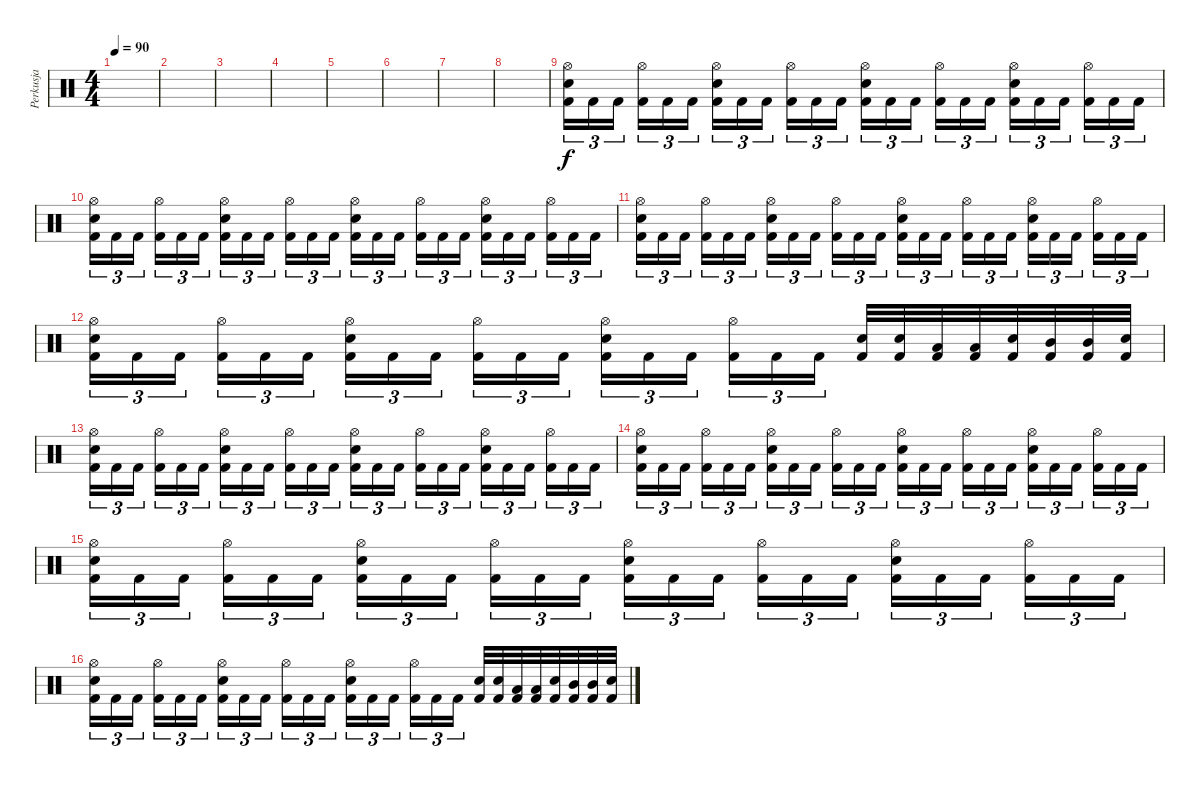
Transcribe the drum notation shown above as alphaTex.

\track ("Perkusja" "Perkusja") {instrument percussion}
\staff {score}
\articulation defaults
\ts (4 4)
\tempo 90
\clef neutral
\ks c
|
|
|
|
|
|
|
|
("Kick (hit) 2" "Snare (hit) 2" "Hi-Hat (open)").16{tu (3 2)} "Kick (hit) 2".16{tu (3 2)} "Kick (hit) 2".16{tu (3 2)} ("Kick (hit) 2" "Hi-Hat (open)").16{tu (3 2)} "Kick (hit) 2".16{tu (3 2)} "Kick (hit) 2".16{tu (3 2)} ("Kick (hit) 2" "Snare (hit) 2" "Hi-Hat (open)").16{tu (3 2)} "Kick (hit) 2".16{tu (3 2)} "Kick (hit) 2".16{tu (3 2)} ("Kick (hit) 2" "Hi-Hat (open)").16{tu (3 2)} "Kick (hit) 2".16{tu (3 2)} "Kick (hit) 2".16{tu (3 2)} ("Kick (hit) 2" "Snare (hit) 2" "Hi-Hat (open)").16{tu (3 2)} "Kick (hit) 2".16{tu (3 2)} "Kick (hit) 2".16{tu (3 2)} ("Kick (hit) 2" "Hi-Hat (open)").16{tu (3 2)} "Kick (hit) 2".16{tu (3 2)} "Kick (hit) 2".16{tu (3 2)} ("Kick (hit) 2" "Snare (hit) 2" "Hi-Hat (open)").16{tu (3 2)} "Kick (hit) 2".16{tu (3 2)} "Kick (hit) 2".16{tu (3 2)} ("Kick (hit) 2" "Hi-Hat (open)").16{tu (3 2)} "Kick (hit) 2".16{tu (3 2)} "Kick (hit) 2".16{tu (3 2)} |
("Kick (hit) 2" "Snare (hit) 2" "Hi-Hat (open)").16{tu (3 2)} "Kick (hit) 2".16{tu (3 2)} "Kick (hit) 2".16{tu (3 2)} ("Kick (hit) 2" "Hi-Hat (open)").16{tu (3 2)} "Kick (hit) 2".16{tu (3 2)} "Kick (hit) 2".16{tu (3 2)} ("Kick (hit) 2" "Snare (hit) 2" "Hi-Hat (open)").16{tu (3 2)} "Kick (hit) 2".16{tu (3 2)} "Kick (hit) 2".16{tu (3 2)} ("Kick (hit) 2" "Hi-Hat (open)").16{tu (3 2)} "Kick (hit) 2".16{tu (3 2)} "Kick (hit) 2".16{tu (3 2)} ("Kick (hit) 2" "Snare (hit) 2" "Hi-Hat (open)").16{tu (3 2)} "Kick (hit) 2".16{tu (3 2)} "Kick (hit) 2".16{tu (3 2)} ("Kick (hit) 2" "Hi-Hat (open)").16{tu (3 2)} "Kick (hit) 2".16{tu (3 2)} "Kick (hit) 2".16{tu (3 2)} ("Kick (hit) 2" "Snare (hit) 2" "Hi-Hat (open)").16{tu (3 2)} "Kick (hit) 2".16{tu (3 2)} "Kick (hit) 2".16{tu (3 2)} ("Kick (hit) 2" "Hi-Hat (open)").16{tu (3 2)} "Kick (hit) 2".16{tu (3 2)} "Kick (hit) 2".16{tu (3 2)} |
("Kick (hit) 2" "Snare (hit) 2" "Hi-Hat (open)").16{tu (3 2)} "Kick (hit) 2".16{tu (3 2)} "Kick (hit) 2".16{tu (3 2)} ("Kick (hit) 2" "Hi-Hat (open)").16{tu (3 2)} "Kick (hit) 2".16{tu (3 2)} "Kick (hit) 2".16{tu (3 2)} ("Kick (hit) 2" "Snare (hit) 2" "Hi-Hat (open)").16{tu (3 2)} "Kick (hit) 2".16{tu (3 2)} "Kick (hit) 2".16{tu (3 2)} ("Kick (hit) 2" "Hi-Hat (open)").16{tu (3 2)} "Kick (hit) 2".16{tu (3 2)} "Kick (hit) 2".16{tu (3 2)} ("Kick (hit) 2" "Snare (hit) 2" "Hi-Hat (open)").16{tu (3 2)} "Kick (hit) 2".16{tu (3 2)} "Kick (hit) 2".16{tu (3 2)} ("Kick (hit) 2" "Hi-Hat (open)").16{tu (3 2)} "Kick (hit) 2".16{tu (3 2)} "Kick (hit) 2".16{tu (3 2)} ("Kick (hit) 2" "Snare (hit) 2" "Hi-Hat (open)").16{tu (3 2)} "Kick (hit) 2".16{tu (3 2)} "Kick (hit) 2".16{tu (3 2)} ("Kick (hit) 2" "Hi-Hat (open)").16{tu (3 2)} "Kick (hit) 2".16{tu (3 2)} "Kick (hit) 2".16{tu (3 2)} |
("Kick (hit) 2" "Snare (hit) 2" "Hi-Hat (open)").16{tu (3 2)} "Kick (hit) 2".16{tu (3 2)} "Kick (hit) 2".16{tu (3 2)} ("Kick (hit) 2" "Hi-Hat (open)").16{tu (3 2)} "Kick (hit) 2".16{tu (3 2)} "Kick (hit) 2".16{tu (3 2)} ("Kick (hit) 2" "Snare (hit) 2" "Hi-Hat (open)").16{tu (3 2)} "Kick (hit) 2".16{tu (3 2)} "Kick (hit) 2".16{tu (3 2)} ("Kick (hit) 2" "Hi-Hat (open)").16{tu (3 2)} "Kick (hit) 2".16{tu (3 2)} "Kick (hit) 2".16{tu (3 2)} ("Kick (hit) 2" "Snare (hit) 2" "Hi-Hat (open)").16{tu (3 2)} "Kick (hit) 2".16{tu (3 2)} "Kick (hit) 2".16{tu (3 2)} ("Kick (hit) 2" "Hi-Hat (open)").16{tu (3 2)} "Kick (hit) 2".16{tu (3 2)} "Kick (hit) 2".16{tu (3 2)} ("Kick (hit) 2" "Snare (hit) 2").32 ("Kick (hit) 2" "Snare (hit) 2").32 ("Kick (hit) 2" "Low Tom (hit)").32 ("Kick (hit) 2" "Low Tom (hit)").32 ("Kick (hit) 2" "Snare (hit) 2").32 ("Kick (hit) 2" "Mid Tom (hit)").32 ("Kick (hit) 2" "Mid Tom (hit)").32 ("Kick (hit) 2" "Snare (hit) 2").32 |
("Kick (hit) 2" "Snare (hit) 2" "Hi-Hat (open)").16{tu (3 2)} "Kick (hit) 2".16{tu (3 2)} "Kick (hit) 2".16{tu (3 2)} ("Kick (hit) 2" "Hi-Hat (open)").16{tu (3 2)} "Kick (hit) 2".16{tu (3 2)} "Kick (hit) 2".16{tu (3 2)} ("Kick (hit) 2" "Snare (hit) 2" "Hi-Hat (open)").16{tu (3 2)} "Kick (hit) 2".16{tu (3 2)} "Kick (hit) 2".16{tu (3 2)} ("Kick (hit) 2" "Hi-Hat (open)").16{tu (3 2)} "Kick (hit) 2".16{tu (3 2)} "Kick (hit) 2".16{tu (3 2)} ("Kick (hit) 2" "Snare (hit) 2" "Hi-Hat (open)").16{tu (3 2)} "Kick (hit) 2".16{tu (3 2)} "Kick (hit) 2".16{tu (3 2)} ("Kick (hit) 2" "Hi-Hat (open)").16{tu (3 2)} "Kick (hit) 2".16{tu (3 2)} "Kick (hit) 2".16{tu (3 2)} ("Kick (hit) 2" "Snare (hit) 2" "Hi-Hat (open)").16{tu (3 2)} "Kick (hit) 2".16{tu (3 2)} "Kick (hit) 2".16{tu (3 2)} ("Kick (hit) 2" "Hi-Hat (open)").16{tu (3 2)} "Kick (hit) 2".16{tu (3 2)} "Kick (hit) 2".16{tu (3 2)} |
("Kick (hit) 2" "Snare (hit) 2" "Hi-Hat (open)").16{tu (3 2)} "Kick (hit) 2".16{tu (3 2)} "Kick (hit) 2".16{tu (3 2)} ("Kick (hit) 2" "Hi-Hat (open)").16{tu (3 2)} "Kick (hit) 2".16{tu (3 2)} "Kick (hit) 2".16{tu (3 2)} ("Kick (hit) 2" "Snare (hit) 2" "Hi-Hat (open)").16{tu (3 2)} "Kick (hit) 2".16{tu (3 2)} "Kick (hit) 2".16{tu (3 2)} ("Kick (hit) 2" "Hi-Hat (open)").16{tu (3 2)} "Kick (hit) 2".16{tu (3 2)} "Kick (hit) 2".16{tu (3 2)} ("Kick (hit) 2" "Snare (hit) 2" "Hi-Hat (open)").16{tu (3 2)} "Kick (hit) 2".16{tu (3 2)} "Kick (hit) 2".16{tu (3 2)} ("Kick (hit) 2" "Hi-Hat (open)").16{tu (3 2)} "Kick (hit) 2".16{tu (3 2)} "Kick (hit) 2".16{tu (3 2)} ("Kick (hit) 2" "Snare (hit) 2" "Hi-Hat (open)").16{tu (3 2)} "Kick (hit) 2".16{tu (3 2)} "Kick (hit) 2".16{tu (3 2)} ("Kick (hit) 2" "Hi-Hat (open)").16{tu (3 2)} "Kick (hit) 2".16{tu (3 2)} "Kick (hit) 2".16{tu (3 2)} |
("Kick (hit) 2" "Snare (hit) 2" "Hi-Hat (open)").16{tu (3 2)} "Kick (hit) 2".16{tu (3 2)} "Kick (hit) 2".16{tu (3 2)} ("Kick (hit) 2" "Hi-Hat (open)").16{tu (3 2)} "Kick (hit) 2".16{tu (3 2)} "Kick (hit) 2".16{tu (3 2)} ("Kick (hit) 2" "Snare (hit) 2" "Hi-Hat (open)").16{tu (3 2)} "Kick (hit) 2".16{tu (3 2)} "Kick (hit) 2".16{tu (3 2)} ("Kick (hit) 2" "Hi-Hat (open)").16{tu (3 2)} "Kick (hit) 2".16{tu (3 2)} "Kick (hit) 2".16{tu (3 2)} ("Kick (hit) 2" "Snare (hit) 2" "Hi-Hat (open)").16{tu (3 2)} "Kick (hit) 2".16{tu (3 2)} "Kick (hit) 2".16{tu (3 2)} ("Kick (hit) 2" "Hi-Hat (open)").16{tu (3 2)} "Kick (hit) 2".16{tu (3 2)} "Kick (hit) 2".16{tu (3 2)} ("Kick (hit) 2" "Snare (hit) 2" "Hi-Hat (open)").16{tu (3 2)} "Kick (hit) 2".16{tu (3 2)} "Kick (hit) 2".16{tu (3 2)} ("Kick (hit) 2" "Hi-Hat (open)").16{tu (3 2)} "Kick (hit) 2".16{tu (3 2)} "Kick (hit) 2".16{tu (3 2)} |
("Kick (hit) 2" "Snare (hit) 2" "Hi-Hat (open)").16{tu (3 2)} "Kick (hit) 2".16{tu (3 2)} "Kick (hit) 2".16{tu (3 2)} ("Kick (hit) 2" "Hi-Hat (open)").16{tu (3 2)} "Kick (hit) 2".16{tu (3 2)} "Kick (hit) 2".16{tu (3 2)} ("Kick (hit) 2" "Snare (hit) 2" "Hi-Hat (open)").16{tu (3 2)} "Kick (hit) 2".16{tu (3 2)} "Kick (hit) 2".16{tu (3 2)} ("Kick (hit) 2" "Hi-Hat (open)").16{tu (3 2)} "Kick (hit) 2".16{tu (3 2)} "Kick (hit) 2".16{tu (3 2)} ("Kick (hit) 2" "Snare (hit) 2" "Hi-Hat (open)").16{tu (3 2)} "Kick (hit) 2".16{tu (3 2)} "Kick (hit) 2".16{tu (3 2)} ("Kick (hit) 2" "Hi-Hat (open)").16{tu (3 2)} "Kick (hit) 2".16{tu (3 2)} "Kick (hit) 2".16{tu (3 2)} ("Kick (hit) 2" "Snare (hit) 2").32 ("Kick (hit) 2" "Snare (hit) 2").32 ("Kick (hit) 2" "Low Tom (hit)").32 ("Kick (hit) 2" "Low Tom (hit)").32 ("Kick (hit) 2" "Snare (hit) 2").32 ("Kick (hit) 2" "Mid Tom (hit)").32 ("Kick (hit) 2" "Mid Tom (hit)").32 ("Kick (hit) 2" "Snare (hit) 2").32
